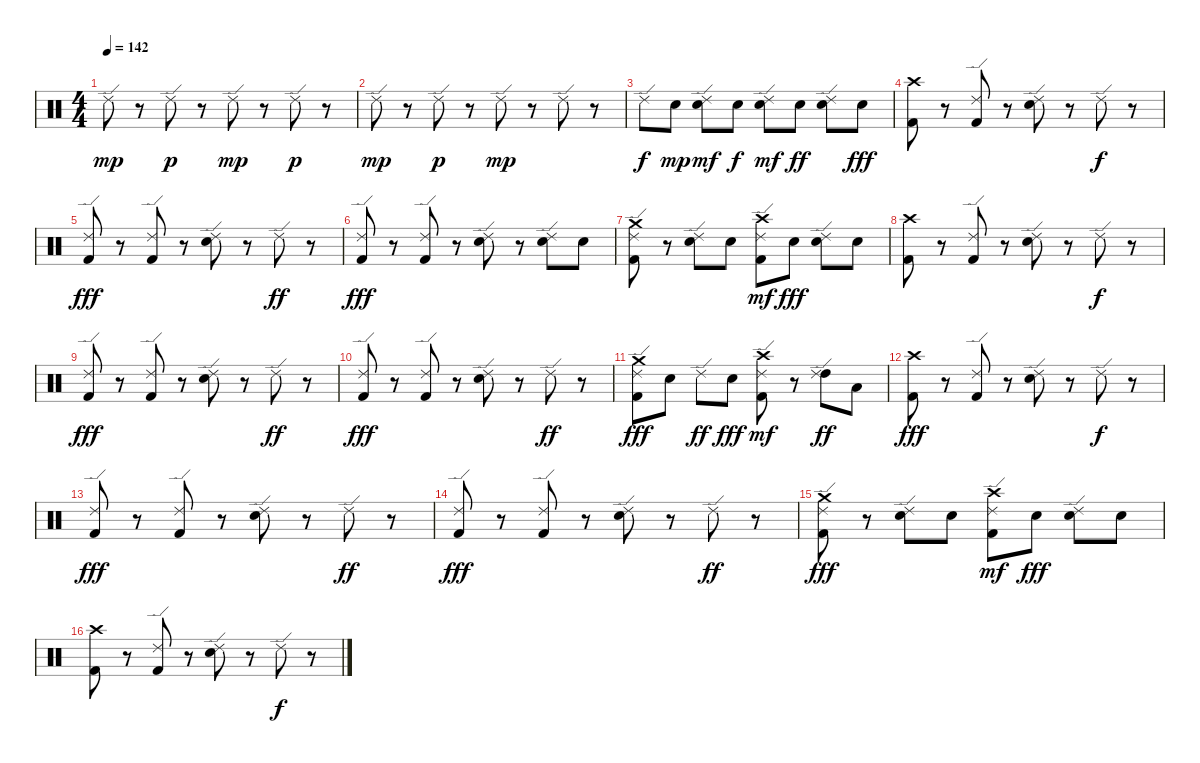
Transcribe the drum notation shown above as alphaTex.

\track "" {instrument percussion}
\staff {score}
\articulation defaults
\ts (4 4)
\tempo 142
\clef neutral
\ks c "Ride (edge) 2".8{dy mp}
r.8 "Ride (edge) 2".8{dy p} r.8 "Ride (edge) 2".8{dy mp} r.8 "Ride (edge) 2".8{dy p} r.8 |
"Ride (edge) 2".8{dy mp} r.8 "Ride (edge) 2".8{dy p} r.8 "Ride (edge) 2".8{dy mp} r.8 "Ride (edge) 2".8 r.8 |
"Ride (edge) 2".8{dy f} "Electric Snare (hit)".8{dy mp} ("Electric Snare (hit)" "Ride (edge) 2").8{dy mf} "Electric Snare (hit)".8{dy f} ("Electric Snare (hit)" "Ride (edge) 2").8{dy mf} "Electric Snare (hit)".8{dy ff} ("Electric Snare (hit)" "Ride (edge) 2").8 "Electric Snare (hit)".8{dy fff} |
("Kick (hit) 2" "Crash high (hit)").8 r.8 ("Ride (edge) 2" "Kick (hit) 2").8 r.8 ("Ride (edge) 2" "Electric Snare (hit)").8 r.8 "Ride (edge) 2".8{dy f} r.8 |
("Ride (edge) 2" "Kick (hit) 2").8{dy fff} r.8 ("Ride (edge) 2" "Kick (hit) 2").8 r.8 ("Ride (edge) 2" "Electric Snare (hit)").8 r.8 "Ride (edge) 2".8{dy ff} r.8 |
("Ride (edge) 2" "Kick (hit) 2").8{dy fff} r.8 ("Ride (edge) 2" "Kick (hit) 2").8 r.8 ("Ride (edge) 2" "Electric Snare (hit)").8 r.8 ("Ride (edge) 2" "Electric Snare (hit)").8 "Electric Snare (hit)".8 |
("Crash medium (hit)" "Ride (edge) 2" "Kick (hit) 2").8 r.8 ("Ride (edge) 2" "Electric Snare (hit)").8 "Electric Snare (hit)".8 ("Ride (edge) 2" "Kick (hit) 2" "Crash high (hit)").8{dy mf} "Electric Snare (hit)".8{dy fff} ("Ride (edge) 2" "Electric Snare (hit)").8 "Electric Snare (hit)".8 |
("Kick (hit) 2" "Crash high (hit)").8 r.8 ("Ride (edge) 2" "Kick (hit) 2").8 r.8 ("Ride (edge) 2" "Electric Snare (hit)").8 r.8 "Ride (edge) 2".8{dy f} r.8 |
("Ride (edge) 2" "Kick (hit) 2").8{dy fff} r.8 ("Ride (edge) 2" "Kick (hit) 2").8 r.8 ("Ride (edge) 2" "Electric Snare (hit)").8 r.8 "Ride (edge) 2".8{dy ff} r.8 |
("Ride (edge) 2" "Kick (hit) 2").8{dy fff} r.8 ("Ride (edge) 2" "Kick (hit) 2").8 r.8 ("Ride (edge) 2" "Electric Snare (hit)").8 r.8 "Ride (edge) 2".8{dy ff} r.8 |
("Crash medium (hit)" "Ride (edge) 2" "Kick (hit) 2").8{dy fff} "Electric Snare (hit)".8 "Ride (edge) 2".8{dy ff} "Electric Snare (hit)".8{dy fff} ("Ride (edge) 2" "Kick (hit) 2" "Crash high (hit)").8{dy mf} r.8 ("High Tom (hit)" "Ride (edge) 2").8{dy ff} "Low Tom (hit)".8 |
("Kick (hit) 2" "Crash high (hit)").8{dy fff} r.8 ("Ride (edge) 2" "Kick (hit) 2").8 r.8 ("Ride (edge) 2" "Electric Snare (hit)").8 r.8 "Ride (edge) 2".8{dy f} r.8 |
("Ride (edge) 2" "Kick (hit) 2").8{dy fff} r.8 ("Ride (edge) 2" "Kick (hit) 2").8 r.8 ("Ride (edge) 2" "Electric Snare (hit)").8 r.8 "Ride (edge) 2".8{dy ff} r.8 |
("Ride (edge) 2" "Kick (hit) 2").8{dy fff} r.8 ("Ride (edge) 2" "Kick (hit) 2").8 r.8 ("Ride (edge) 2" "Electric Snare (hit)").8 r.8 "Ride (edge) 2".8{dy ff} r.8 |
("Crash medium (hit)" "Ride (edge) 2" "Kick (hit) 2").8{dy fff} r.8 ("Ride (edge) 2" "Electric Snare (hit)").8 "Electric Snare (hit)".8 ("Ride (edge) 2" "Kick (hit) 2" "Crash high (hit)").8{dy mf} "Electric Snare (hit)".8{dy fff} ("Ride (edge) 2" "Electric Snare (hit)").8 "Electric Snare (hit)".8 |
("Kick (hit) 2" "Crash high (hit)").8 r.8 ("Ride (edge) 2" "Kick (hit) 2").8 r.8 ("Ride (edge) 2" "Electric Snare (hit)").8 r.8 "Ride (edge) 2".8{dy f} r.8
